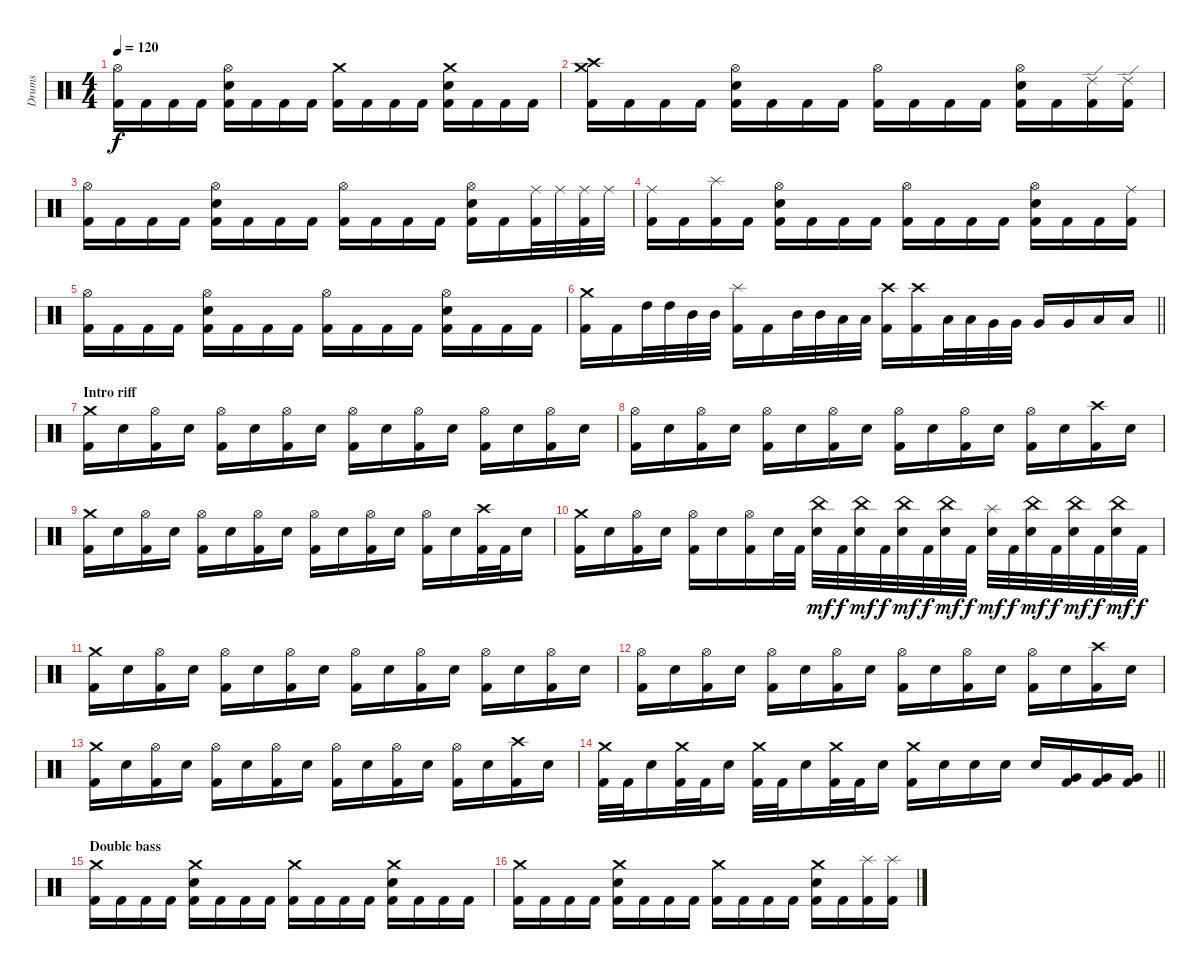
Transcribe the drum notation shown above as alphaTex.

\track ("Drums" "Drums") {instrument percussion}
\staff {score}
\articulation defaults
\ts (4 4)
\tempo 120
\clef neutral
\ks c
("Hi-Hat (open)" "Kick (hit) 2").16{dy f} "Kick (hit) 2".16 "Kick (hit) 2".16 "Kick (hit) 2".16 ("Hi-Hat (open)" "Electric Snare (hit)" "Kick (hit) 2").16 "Kick (hit) 2".16 "Kick (hit) 2".16 "Kick (hit) 2".16 ("Crash medium (hit)" "Kick (hit) 2").16 "Kick (hit) 2".16 "Kick (hit) 2".16 "Kick (hit) 2".16 ("Crash medium (hit)" "Electric Snare (hit)" "Kick (hit) 2").16 "Kick (hit) 2".16 "Kick (hit) 2".16 "Kick (hit) 2".16 |
("Crash medium (hit)" "Crash high (hit)" "Kick (hit) 2").16 "Kick (hit) 2".16 "Kick (hit) 2".16 "Kick (hit) 2".16 ("Hi-Hat (open)" "Electric Snare (hit)" "Kick (hit) 2").16 "Kick (hit) 2".16 "Kick (hit) 2".16 "Kick (hit) 2".16 ("Hi-Hat (open)" "Kick (hit) 2").16 "Kick (hit) 2".16 "Kick (hit) 2".16 "Kick (hit) 2".16 ("Hi-Hat (open)" "Electric Snare (hit)" "Kick (hit) 2").16 "Kick (hit) 2".16 ("Ride (edge) 2" "Kick (hit) 2").16 ("Ride (edge) 2" "Kick (hit) 2").16 |
("Hi-Hat (open)" "Kick (hit) 2").16 "Kick (hit) 2".16 "Kick (hit) 2".16 "Kick (hit) 2".16 ("Hi-Hat (open)" "Electric Snare (hit)" "Kick (hit) 2").16 "Kick (hit) 2".16 "Kick (hit) 2".16 "Kick (hit) 2".16 ("Hi-Hat (open)" "Kick (hit) 2").16 "Kick (hit) 2".16 "Kick (hit) 2".16 "Kick (hit) 2".16 ("Hi-Hat (open)" "Electric Snare (hit)" "Kick (hit) 2").16 "Kick (hit) 2".16 ("Ride (middle)" "Kick (hit) 2").32 "Ride (middle)".32 ("Ride (middle)" "Kick (hit) 2").32 "Ride (middle)".32 |
("Ride (middle)" "Kick (hit) 2").16 "Kick (hit) 2".16 ("Splash (hit)" "Kick (hit) 2").16 "Kick (hit) 2".16 ("Hi-Hat (open)" "Electric Snare (hit)" "Kick (hit) 2").16 "Kick (hit) 2".16 "Kick (hit) 2".16 "Kick (hit) 2".16 ("Hi-Hat (open)" "Kick (hit) 2").16 "Kick (hit) 2".16 "Kick (hit) 2".16 "Kick (hit) 2".16 ("Hi-Hat (open)" "Electric Snare (hit)" "Kick (hit) 2").16 "Kick (hit) 2".16 "Kick (hit) 2".16 ("Ride (middle)" "Kick (hit) 2").16 |
("Hi-Hat (open)" "Kick (hit) 2").16 "Kick (hit) 2".16 "Kick (hit) 2".16 "Kick (hit) 2".16 ("Hi-Hat (open)" "Electric Snare (hit)" "Kick (hit) 2").16 "Kick (hit) 2".16 "Kick (hit) 2".16 "Kick (hit) 2".16 ("Hi-Hat (open)" "Kick (hit) 2").16 "Kick (hit) 2".16 "Kick (hit) 2".16 "Kick (hit) 2".16 ("Hi-Hat (open)" "Electric Snare (hit)" "Kick (hit) 2").16 "Kick (hit) 2".16 "Kick (hit) 2".16 "Kick (hit) 2".16 |
\barLineRight lightlight
("Crash medium (hit)" "Kick (hit) 2").16 "Kick (hit) 2".16 "High Tom (hit)".32 "High Tom (hit)".32 "Mid Tom (hit)".32 "Mid Tom (hit)".32 ("Splash (hit)" "Kick (hit) 2").16 "Kick (hit) 2".16 "Mid Tom (hit)".32 "Mid Tom (hit)".32 "Low Tom (hit)".32 "Low Tom (hit)".32 ("Crash high (hit)" "Kick (hit) 2").16 ("Crash high (hit)" "Kick (hit) 2").16 "Low Tom (hit)".32 "Low Tom (hit)".32 "Very Low Tom (hit)".32 "Very Low Tom (hit)".32 "Very Low Tom (hit)".16 "Very Low Tom (hit)".16 "Low Floor Tom (hit)".16 "Low Floor Tom (hit)".16 |
\section ("" "Intro riff")
("Crash medium (hit)" "Kick (hit) 2").16 "Electric Snare (hit)".16 ("Hi-Hat (open)" "Kick (hit) 2").16 "Electric Snare (hit)".16 ("Hi-Hat (open)" "Kick (hit) 2").16 "Electric Snare (hit)".16 ("Hi-Hat (open)" "Kick (hit) 2").16 "Electric Snare (hit)".16 ("Hi-Hat (open)" "Kick (hit) 2").16 "Electric Snare (hit)".16 ("Hi-Hat (open)" "Kick (hit) 2").16 "Electric Snare (hit)".16 ("Hi-Hat (open)" "Kick (hit) 2").16 "Electric Snare (hit)".16 ("Hi-Hat (open)" "Kick (hit) 2").16 "Electric Snare (hit)".16 |
("Hi-Hat (open)" "Kick (hit) 2").16 "Electric Snare (hit)".16 ("Hi-Hat (open)" "Kick (hit) 2").16 "Electric Snare (hit)".16 ("Hi-Hat (open)" "Kick (hit) 2").16 "Electric Snare (hit)".16 ("Hi-Hat (open)" "Kick (hit) 2").16 "Electric Snare (hit)".16 ("Hi-Hat (open)" "Kick (hit) 2").16 "Electric Snare (hit)".16 ("Hi-Hat (open)" "Kick (hit) 2").16 "Electric Snare (hit)".16 ("Hi-Hat (open)" "Kick (hit) 2").16 "Electric Snare (hit)".16 ("Crash high (hit)" "Kick (hit) 2").16 "Electric Snare (hit)".16 |
("Crash medium (hit)" "Kick (hit) 2").16 "Electric Snare (hit)".16 ("Hi-Hat (open)" "Kick (hit) 2").16 "Electric Snare (hit)".16 ("Hi-Hat (open)" "Kick (hit) 2").16 "Electric Snare (hit)".16 ("Hi-Hat (open)" "Kick (hit) 2").16 "Electric Snare (hit)".16 ("Hi-Hat (open)" "Kick (hit) 2").16 "Electric Snare (hit)".16 ("Hi-Hat (open)" "Kick (hit) 2").16 "Electric Snare (hit)".16 ("Hi-Hat (open)" "Kick (hit) 2").16 "Electric Snare (hit)".16 ("Crash high (hit)" "Kick (hit) 2").32 "Kick (hit) 2".32 "Electric Snare (hit)".16 |
("Crash medium (hit)" "Kick (hit) 2").16 "Electric Snare (hit)".16 ("Hi-Hat (open)" "Kick (hit) 2").16 "Electric Snare (hit)".16 ("Hi-Hat (open)" "Kick (hit) 2").16 "Electric Snare (hit)".16 ("Hi-Hat (open)" "Kick (hit) 2").16 "Electric Snare (hit)".32 "Kick (hit) 2".32 ("China (hit)" "Electric Snare (hit)").32{dy mf} "Kick (hit) 2".32{dy f} ("China (hit)" "Electric Snare (hit)").32{dy mf} "Kick (hit) 2".32{dy f} ("China (hit)" "Electric Snare (hit)").32{dy mf} "Kick (hit) 2".32{dy f} ("China (hit)" "Electric Snare (hit)").32{dy mf} "Kick (hit) 2".32{dy f} ("Splash (hit)" "Electric Snare (hit)").32{dy mf} "Kick (hit) 2".32{dy f} ("China (hit)" "Electric Snare (hit)").32{dy mf} "Kick (hit) 2".32{dy f} ("China (hit)" "Electric Snare (hit)").32{dy mf} "Kick (hit) 2".32{dy f} ("China (hit)" "Electric Snare (hit)").32{dy mf} "Kick (hit) 2".32{dy f} |
("Crash medium (hit)" "Kick (hit) 2").16 "Electric Snare (hit)".16 ("Hi-Hat (open)" "Kick (hit) 2").16 "Electric Snare (hit)".16 ("Hi-Hat (open)" "Kick (hit) 2").16 "Electric Snare (hit)".16 ("Hi-Hat (open)" "Kick (hit) 2").16 "Electric Snare (hit)".16 ("Hi-Hat (open)" "Kick (hit) 2").16 "Electric Snare (hit)".16 ("Hi-Hat (open)" "Kick (hit) 2").16 "Electric Snare (hit)".16 ("Hi-Hat (open)" "Kick (hit) 2").16 "Electric Snare (hit)".16 ("Hi-Hat (open)" "Kick (hit) 2").16 "Electric Snare (hit)".16 |
("Hi-Hat (open)" "Kick (hit) 2").16 "Electric Snare (hit)".16 ("Hi-Hat (open)" "Kick (hit) 2").16 "Electric Snare (hit)".16 ("Hi-Hat (open)" "Kick (hit) 2").16 "Electric Snare (hit)".16 ("Hi-Hat (open)" "Kick (hit) 2").16 "Electric Snare (hit)".16 ("Hi-Hat (open)" "Kick (hit) 2").16 "Electric Snare (hit)".16 ("Hi-Hat (open)" "Kick (hit) 2").16 "Electric Snare (hit)".16 ("Hi-Hat (open)" "Kick (hit) 2").16 "Electric Snare (hit)".16 ("Crash high (hit)" "Kick (hit) 2").16 "Electric Snare (hit)".16 |
("Crash medium (hit)" "Kick (hit) 2").16 "Electric Snare (hit)".16 ("Hi-Hat (open)" "Kick (hit) 2").16 "Electric Snare (hit)".16 ("Hi-Hat (open)" "Kick (hit) 2").16 "Electric Snare (hit)".16 ("Hi-Hat (open)" "Kick (hit) 2").16 "Electric Snare (hit)".16 ("Hi-Hat (open)" "Kick (hit) 2").16 "Electric Snare (hit)".16 ("Hi-Hat (open)" "Kick (hit) 2").16 "Electric Snare (hit)".16 ("Hi-Hat (open)" "Kick (hit) 2").16 "Electric Snare (hit)".16 ("Crash high (hit)" "Kick (hit) 2").16 "Electric Snare (hit)".16 |
\barLineRight lightlight
("Crash medium (hit)" "Kick (hit) 2").32 "Kick (hit) 2".32 "Electric Snare (hit)".16 ("Crash medium (hit)" "Kick (hit) 2").32 "Kick (hit) 2".32 "Electric Snare (hit)".16 ("Crash medium (hit)" "Kick (hit) 2").32 "Kick (hit) 2".32 "Electric Snare (hit)".16 ("Crash medium (hit)" "Kick (hit) 2").32 "Kick (hit) 2".32 "Electric Snare (hit)".16 ("Crash medium (hit)" "Kick (hit) 2").16 "Electric Snare (hit)".16 "Electric Snare (hit)".16 "Electric Snare (hit)".16 "Electric Snare (hit)".16 ("Very Low Tom (hit)" "Kick (hit) 2").16 ("Very Low Tom (hit)" "Kick (hit) 2").16 ("Very Low Tom (hit)" "Kick (hit) 2").16 |
\section ("" "Double bass")
("Crash medium (hit)" "Kick (hit) 2").16 "Kick (hit) 2".16 "Kick (hit) 2".16 "Kick (hit) 2".16 ("Crash medium (hit)" "Electric Snare (hit)" "Kick (hit) 2").16 "Kick (hit) 2".16 "Kick (hit) 2".16 "Kick (hit) 2".16 ("Crash medium (hit)" "Kick (hit) 2").16 "Kick (hit) 2".16 "Kick (hit) 2".16 "Kick (hit) 2".16 ("Crash medium (hit)" "Electric Snare (hit)" "Kick (hit) 2").16 "Kick (hit) 2".16 "Kick (hit) 2".16 "Kick (hit) 2".16 |
("Crash medium (hit)" "Kick (hit) 2").16 "Kick (hit) 2".16 "Kick (hit) 2".16 "Kick (hit) 2".16 ("Crash medium (hit)" "Electric Snare (hit)" "Kick (hit) 2").16 "Kick (hit) 2".16 "Kick (hit) 2".16 "Kick (hit) 2".16 ("Crash medium (hit)" "Kick (hit) 2").16 "Kick (hit) 2".16 "Kick (hit) 2".16 "Kick (hit) 2".16 ("Crash medium (hit)" "Electric Snare (hit)" "Kick (hit) 2").16 "Kick (hit) 2".16 ("Splash (hit)" "Kick (hit) 2").16 ("Splash (hit)" "Kick (hit) 2").16
